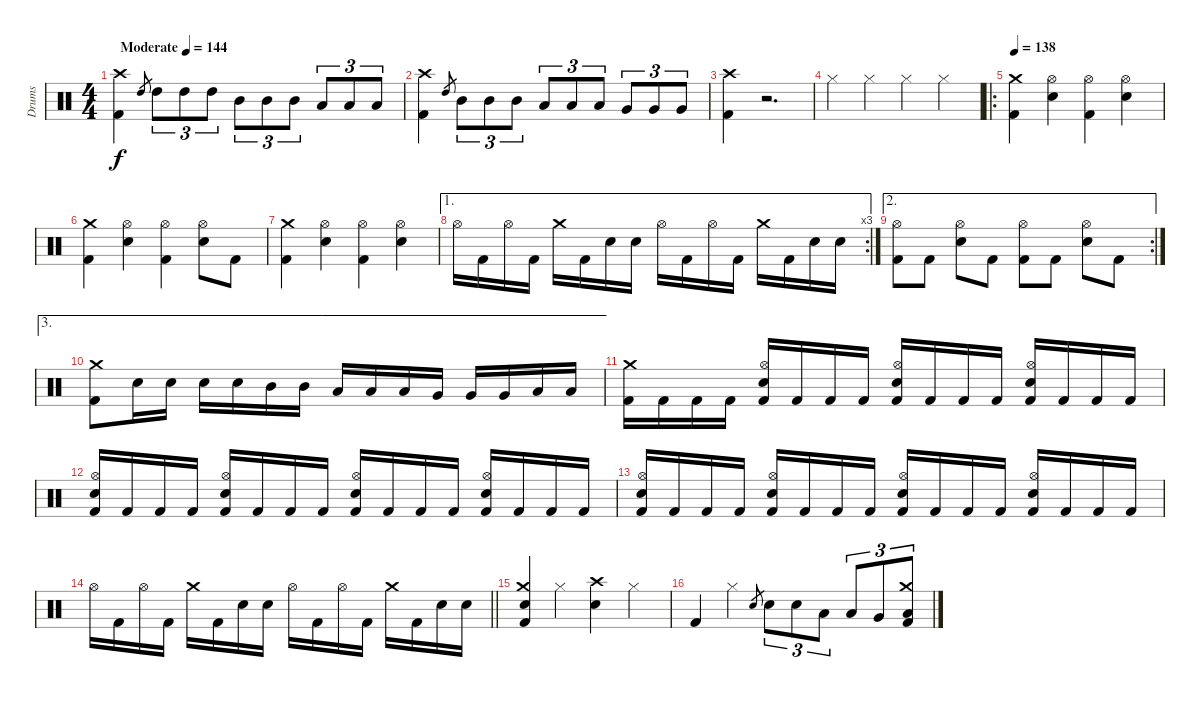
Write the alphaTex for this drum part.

\track ("Drums" "Drums") {instrument percussion}
\staff {score}
\articulation defaults
\ts (4 4)
\tempo (144 "Moderate")
\clef neutral
\ks c
("Crash high (hit)" "Kick (hit) 2").4{dy f} "High Tom (hit)".8{gr} "High Tom (hit)".8{tu (3 2)} "High Tom (hit)".8{tu (3 2)} "High Tom (hit)".8{tu (3 2)} "Mid Tom (hit)".8{tu (3 2)} "Mid Tom (hit)".8{tu (3 2)} "Mid Tom (hit)".8{tu (3 2)} "Low Tom (hit)".8{tu (3 2)} "Low Tom (hit)".8{tu (3 2)} "Low Tom (hit)".8{tu (3 2)} |
("Crash high (hit)" "Kick (hit) 2").4 "High Tom (hit)".8{gr} "Mid Tom (hit)".8{tu (3 2)} "Mid Tom (hit)".8{tu (3 2)} "Mid Tom (hit)".8{tu (3 2)} "Low Tom (hit)".8{tu (3 2)} "Low Tom (hit)".8{tu (3 2)} "Low Tom (hit)".8{tu (3 2)} "Very Low Tom (hit)".8{tu (3 2)} "Very Low Tom (hit)".8{tu (3 2)} "Very Low Tom (hit)".8{tu (3 2)} |
("Crash high (hit)" "Kick (hit) 2").4 r.2{d} |
"Hi-Hat (closed)".4 "Hi-Hat (closed)".4 "Hi-Hat (closed)".4 "Hi-Hat (closed)".4 |
\ro
\tempo 138
("Crash medium (hit)" "Kick (hit) 2").4 ("Hi-Hat (open)" "Electric Snare (hit)").4 ("Hi-Hat (open)" "Kick (hit) 2").4 ("Hi-Hat (open)" "Electric Snare (hit)").4 |
("Crash medium (hit)" "Kick (hit) 2").4 ("Hi-Hat (open)" "Electric Snare (hit)").4 ("Hi-Hat (open)" "Kick (hit) 2").4 ("Hi-Hat (open)" "Electric Snare (hit)").8 "Kick (hit) 2".8 |
("Crash medium (hit)" "Kick (hit) 2").4 ("Hi-Hat (open)" "Electric Snare (hit)").4 ("Hi-Hat (open)" "Kick (hit) 2").4 ("Hi-Hat (open)" "Electric Snare (hit)").4 |
\ae 1
\rc 3 "Hi-Hat (open)".16 "Kick (hit) 2".16 "Hi-Hat (open)".16 "Kick (hit) 2".16 "Crash medium (hit)".16 "Kick (hit) 2".16 "Electric Snare (hit)".16 "Electric Snare (hit)".16 "Hi-Hat (open)".16 "Kick (hit) 2".16 "Hi-Hat (open)".16 "Kick (hit) 2".16 "Crash medium (hit)".16 "Kick (hit) 2".16 "Electric Snare (hit)".16 "Electric Snare (hit)".16
|
\ae 2
\rc 2
("Hi-Hat (open)" "Kick (hit) 2").8 "Kick (hit) 2".8 ("Hi-Hat (open)" "Electric Snare (hit)").8 "Kick (hit) 2".8 ("Hi-Hat (open)" "Kick (hit) 2").8 "Kick (hit) 2".8 ("Hi-Hat (open)" "Electric Snare (hit)").8 "Kick (hit) 2".8 |
\ae 3
("Crash medium (hit)" "Kick (hit) 2").8 "Electric Snare (hit)".16 "Electric Snare (hit)".16 "Electric Snare (hit)".16 "Electric Snare (hit)".16 "Mid Tom (hit)".16 "Mid Tom (hit)".16 "Low Tom (hit)".16 "Low Tom (hit)".16 "Low Tom (hit)".16 "Very Low Tom (hit)".16 "Very Low Tom (hit)".16 "Very Low Tom (hit)".16 "Low Floor Tom (hit)".16 "Low Floor Tom (hit)".16 |
("Crash medium (hit)" "Kick (hit) 2").16 "Kick (hit) 2".16 "Kick (hit) 2".16 "Kick (hit) 2".16 ("Hi-Hat (open)" "Electric Snare (hit)" "Kick (hit) 2").16 "Kick (hit) 2".16 "Kick (hit) 2".16 "Kick (hit) 2".16 ("Hi-Hat (open)" "Electric Snare (hit)" "Kick (hit) 2").16 "Kick (hit) 2".16 "Kick (hit) 2".16 "Kick (hit) 2".16 ("Hi-Hat (open)" "Electric Snare (hit)" "Kick (hit) 2").16 "Kick (hit) 2".16 "Kick (hit) 2".16 "Kick (hit) 2".16 |
("Hi-Hat (open)" "Electric Snare (hit)" "Kick (hit) 2").16 "Kick (hit) 2".16 "Kick (hit) 2".16 "Kick (hit) 2".16 ("Hi-Hat (open)" "Electric Snare (hit)" "Kick (hit) 2").16 "Kick (hit) 2".16 "Kick (hit) 2".16 "Kick (hit) 2".16 ("Hi-Hat (open)" "Electric Snare (hit)" "Kick (hit) 2").16 "Kick (hit) 2".16 "Kick (hit) 2".16 "Kick (hit) 2".16 ("Hi-Hat (open)" "Electric Snare (hit)" "Kick (hit) 2").16 "Kick (hit) 2".16 "Kick (hit) 2".16 "Kick (hit) 2".16 |
("Hi-Hat (open)" "Electric Snare (hit)" "Kick (hit) 2").16 "Kick (hit) 2".16 "Kick (hit) 2".16 "Kick (hit) 2".16 ("Hi-Hat (open)" "Electric Snare (hit)" "Kick (hit) 2").16 "Kick (hit) 2".16 "Kick (hit) 2".16 "Kick (hit) 2".16 ("Hi-Hat (open)" "Electric Snare (hit)" "Kick (hit) 2").16 "Kick (hit) 2".16 "Kick (hit) 2".16 "Kick (hit) 2".16 ("Hi-Hat (open)" "Electric Snare (hit)" "Kick (hit) 2").16 "Kick (hit) 2".16 "Kick (hit) 2".16 "Kick (hit) 2".16 |
\barLineRight lightlight "Hi-Hat (open)".16 "Kick (hit) 2".16 "Hi-Hat (open)".16 "Kick (hit) 2".16 "Crash medium (hit)".16 "Kick (hit) 2".16 "Electric Snare (hit)".16 "Electric Snare (hit)".16 "Hi-Hat (open)".16 "Kick (hit) 2".16 "Hi-Hat (open)".16 "Kick (hit) 2".16 "Crash medium (hit)".16 "Kick (hit) 2".16 "Electric Snare (hit)".16 "Electric Snare (hit)".16
|
("Crash medium (hit)" "Electric Snare (hit)" "Kick (hit) 2").4 "Hi-Hat (closed)".4 ("Crash high (hit)" "Electric Snare (hit)").4 "Hi-Hat (closed)".4 |
"Kick (hit) 2".4 "Hi-Hat (closed)".4 "Electric Snare (hit)".8{gr} "Electric Snare (hit)".8{tu (3 2)} "Electric Snare (hit)".8{tu (3 2)} "Low Tom (hit)".8{tu (3 2)} "Low Tom (hit)".8{tu (3 2)} "Very Low Tom (hit)".8{tu (3 2)} ("Crash medium (hit)" "Low Floor Tom (hit)" "Kick (hit) 2").8{tu (3 2)}
